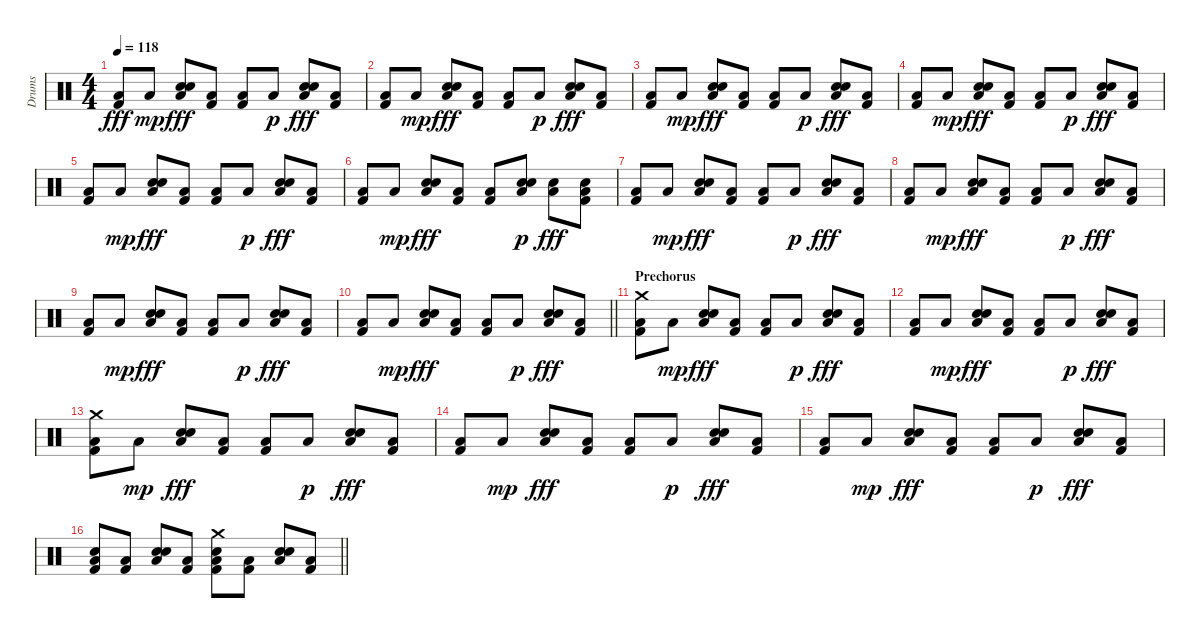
\track ("Drums" "Drums") {instrument percussion}
\staff {score}
\articulation defaults
\ts (4 4)
\tempo 118
\clef neutral
\ks c
("Low Floor Tom (hit)" "Kick (hit) 2").8{dy fff} "Low Floor Tom (hit)".8{dy mp} ("Hand Clap (hit)" "Snare (hit) 2" "Low Floor Tom (hit)").8{dy fff} ("Low Floor Tom (hit)" "Kick (hit) 2").8 ("Low Floor Tom (hit)" "Kick (hit) 2").8 "Low Floor Tom (hit)".8{dy p} ("Hand Clap (hit)" "Snare (hit) 2" "Low Floor Tom (hit)").8{dy fff} ("Low Floor Tom (hit)" "Kick (hit) 2").8 |
("Low Floor Tom (hit)" "Kick (hit) 2").8 "Low Floor Tom (hit)".8{dy mp} ("Hand Clap (hit)" "Snare (hit) 2" "Low Floor Tom (hit)").8{dy fff} ("Low Floor Tom (hit)" "Kick (hit) 2").8 ("Low Floor Tom (hit)" "Kick (hit) 2").8 "Low Floor Tom (hit)".8{dy p} ("Hand Clap (hit)" "Snare (hit) 2" "Low Floor Tom (hit)").8{dy fff} ("Low Floor Tom (hit)" "Kick (hit) 2").8 |
("Low Floor Tom (hit)" "Kick (hit) 2").8 "Low Floor Tom (hit)".8{dy mp} ("Hand Clap (hit)" "Snare (hit) 2" "Low Floor Tom (hit)").8{dy fff} ("Low Floor Tom (hit)" "Kick (hit) 2").8 ("Low Floor Tom (hit)" "Kick (hit) 2").8 "Low Floor Tom (hit)".8{dy p} ("Hand Clap (hit)" "Snare (hit) 2" "Low Floor Tom (hit)").8{dy fff} ("Low Floor Tom (hit)" "Kick (hit) 2").8 |
("Low Floor Tom (hit)" "Kick (hit) 2").8 "Low Floor Tom (hit)".8{dy mp} ("Hand Clap (hit)" "Snare (hit) 2" "Low Floor Tom (hit)").8{dy fff} ("Low Floor Tom (hit)" "Kick (hit) 2").8 ("Low Floor Tom (hit)" "Kick (hit) 2").8 "Low Floor Tom (hit)".8{dy p} ("Hand Clap (hit)" "Snare (hit) 2" "Low Floor Tom (hit)").8{dy fff} ("Low Floor Tom (hit)" "Kick (hit) 2").8 |
("Low Floor Tom (hit)" "Kick (hit) 2").8 "Low Floor Tom (hit)".8{dy mp} ("Hand Clap (hit)" "Snare (hit) 2" "Low Floor Tom (hit)").8{dy fff} ("Low Floor Tom (hit)" "Kick (hit) 2").8 ("Low Floor Tom (hit)" "Kick (hit) 2").8 "Low Floor Tom (hit)".8{dy p} ("Hand Clap (hit)" "Snare (hit) 2" "Low Floor Tom (hit)").8{dy fff} ("Low Floor Tom (hit)" "Kick (hit) 2").8 |
("Low Floor Tom (hit)" "Kick (hit) 2").8 "Low Floor Tom (hit)".8{dy mp} ("Hand Clap (hit)" "Snare (hit) 2" "Low Floor Tom (hit)").8{dy fff} ("Low Floor Tom (hit)" "Kick (hit) 2").8 ("Low Floor Tom (hit)" "Kick (hit) 2").8 ("Hand Clap (hit)" "Snare (hit) 2" "Low Floor Tom (hit)").8{dy p} ("Snare (hit) 2" "Low Floor Tom (hit)").8{dy fff} ("Snare (hit) 2" "Low Floor Tom (hit)" "Kick (hit) 2").8 |
("Low Floor Tom (hit)" "Kick (hit) 2").8 "Low Floor Tom (hit)".8{dy mp} ("Hand Clap (hit)" "Snare (hit) 2" "Low Floor Tom (hit)").8{dy fff} ("Low Floor Tom (hit)" "Kick (hit) 2").8 ("Low Floor Tom (hit)" "Kick (hit) 2").8 "Low Floor Tom (hit)".8{dy p} ("Hand Clap (hit)" "Snare (hit) 2" "Low Floor Tom (hit)").8{dy fff} ("Low Floor Tom (hit)" "Kick (hit) 2").8 |
("Low Floor Tom (hit)" "Kick (hit) 2").8 "Low Floor Tom (hit)".8{dy mp} ("Hand Clap (hit)" "Snare (hit) 2" "Low Floor Tom (hit)").8{dy fff} ("Low Floor Tom (hit)" "Kick (hit) 2").8 ("Low Floor Tom (hit)" "Kick (hit) 2").8 "Low Floor Tom (hit)".8{dy p} ("Hand Clap (hit)" "Snare (hit) 2" "Low Floor Tom (hit)").8{dy fff} ("Low Floor Tom (hit)" "Kick (hit) 2").8 |
("Low Floor Tom (hit)" "Kick (hit) 2").8 "Low Floor Tom (hit)".8{dy mp} ("Hand Clap (hit)" "Snare (hit) 2" "Low Floor Tom (hit)").8{dy fff} ("Low Floor Tom (hit)" "Kick (hit) 2").8 ("Low Floor Tom (hit)" "Kick (hit) 2").8 "Low Floor Tom (hit)".8{dy p} ("Hand Clap (hit)" "Snare (hit) 2" "Low Floor Tom (hit)").8{dy fff} ("Low Floor Tom (hit)" "Kick (hit) 2").8 |
\barLineRight lightlight
("Low Floor Tom (hit)" "Kick (hit) 2").8 "Low Floor Tom (hit)".8{dy mp} ("Hand Clap (hit)" "Snare (hit) 2" "Low Floor Tom (hit)").8{dy fff} ("Low Floor Tom (hit)" "Kick (hit) 2").8 ("Low Floor Tom (hit)" "Kick (hit) 2").8 "Low Floor Tom (hit)".8{dy p} ("Hand Clap (hit)" "Snare (hit) 2" "Low Floor Tom (hit)").8{dy fff} ("Low Floor Tom (hit)" "Kick (hit) 2").8 |
\section ("" "Prechorus")
("Crash medium (hit)" "Low Floor Tom (hit)" "Kick (hit) 2").8 "Low Floor Tom (hit)".8{dy mp} ("Hand Clap (hit)" "Snare (hit) 2" "Low Floor Tom (hit)").8{dy fff} ("Low Floor Tom (hit)" "Kick (hit) 2").8 ("Low Floor Tom (hit)" "Kick (hit) 2").8 "Low Floor Tom (hit)".8{dy p} ("Hand Clap (hit)" "Snare (hit) 2" "Low Floor Tom (hit)").8{dy fff} ("Low Floor Tom (hit)" "Kick (hit) 2").8 |
("Low Floor Tom (hit)" "Kick (hit) 2").8 "Low Floor Tom (hit)".8{dy mp} ("Hand Clap (hit)" "Snare (hit) 2" "Low Floor Tom (hit)").8{dy fff} ("Low Floor Tom (hit)" "Kick (hit) 2").8 ("Low Floor Tom (hit)" "Kick (hit) 2").8 "Low Floor Tom (hit)".8{dy p} ("Hand Clap (hit)" "Snare (hit) 2" "Low Floor Tom (hit)").8{dy fff} ("Low Floor Tom (hit)" "Kick (hit) 2").8 |
("Crash medium (hit)" "Low Floor Tom (hit)" "Kick (hit) 2").8 "Low Floor Tom (hit)".8{dy mp} ("Hand Clap (hit)" "Snare (hit) 2" "Low Floor Tom (hit)").8{dy fff} ("Low Floor Tom (hit)" "Kick (hit) 2").8 ("Low Floor Tom (hit)" "Kick (hit) 2").8 "Low Floor Tom (hit)".8{dy p} ("Hand Clap (hit)" "Snare (hit) 2" "Low Floor Tom (hit)").8{dy fff} ("Low Floor Tom (hit)" "Kick (hit) 2").8 |
("Low Floor Tom (hit)" "Kick (hit) 2").8 "Low Floor Tom (hit)".8{dy mp} ("Hand Clap (hit)" "Snare (hit) 2" "Low Floor Tom (hit)").8{dy fff} ("Low Floor Tom (hit)" "Kick (hit) 2").8 ("Low Floor Tom (hit)" "Kick (hit) 2").8 "Low Floor Tom (hit)".8{dy p} ("Hand Clap (hit)" "Snare (hit) 2" "Low Floor Tom (hit)").8{dy fff} ("Low Floor Tom (hit)" "Kick (hit) 2").8 |
("Low Floor Tom (hit)" "Kick (hit) 2").8 "Low Floor Tom (hit)".8{dy mp} ("Hand Clap (hit)" "Snare (hit) 2" "Low Floor Tom (hit)").8{dy fff} ("Low Floor Tom (hit)" "Kick (hit) 2").8 ("Low Floor Tom (hit)" "Kick (hit) 2").8 "Low Floor Tom (hit)".8{dy p} ("Hand Clap (hit)" "Snare (hit) 2" "Low Floor Tom (hit)").8{dy fff} ("Low Floor Tom (hit)" "Kick (hit) 2").8 |
\barLineRight lightlight
("Snare (hit) 2" "Low Floor Tom (hit)" "Kick (hit) 2").8 ("Low Floor Tom (hit)" "Kick (hit) 2").8 ("Hand Clap (hit)" "Snare (hit) 2" "Low Floor Tom (hit)").8 ("Low Floor Tom (hit)" "Kick (hit) 2").8 ("Crash medium (hit)" "Snare (hit) 2" "Low Floor Tom (hit)" "Kick (hit) 2").8 ("Low Floor Tom (hit)" "Kick (hit) 2").8 ("Hand Clap (hit)" "Snare (hit) 2" "Low Floor Tom (hit)").8 ("Low Floor Tom (hit)" "Kick (hit) 2").8
